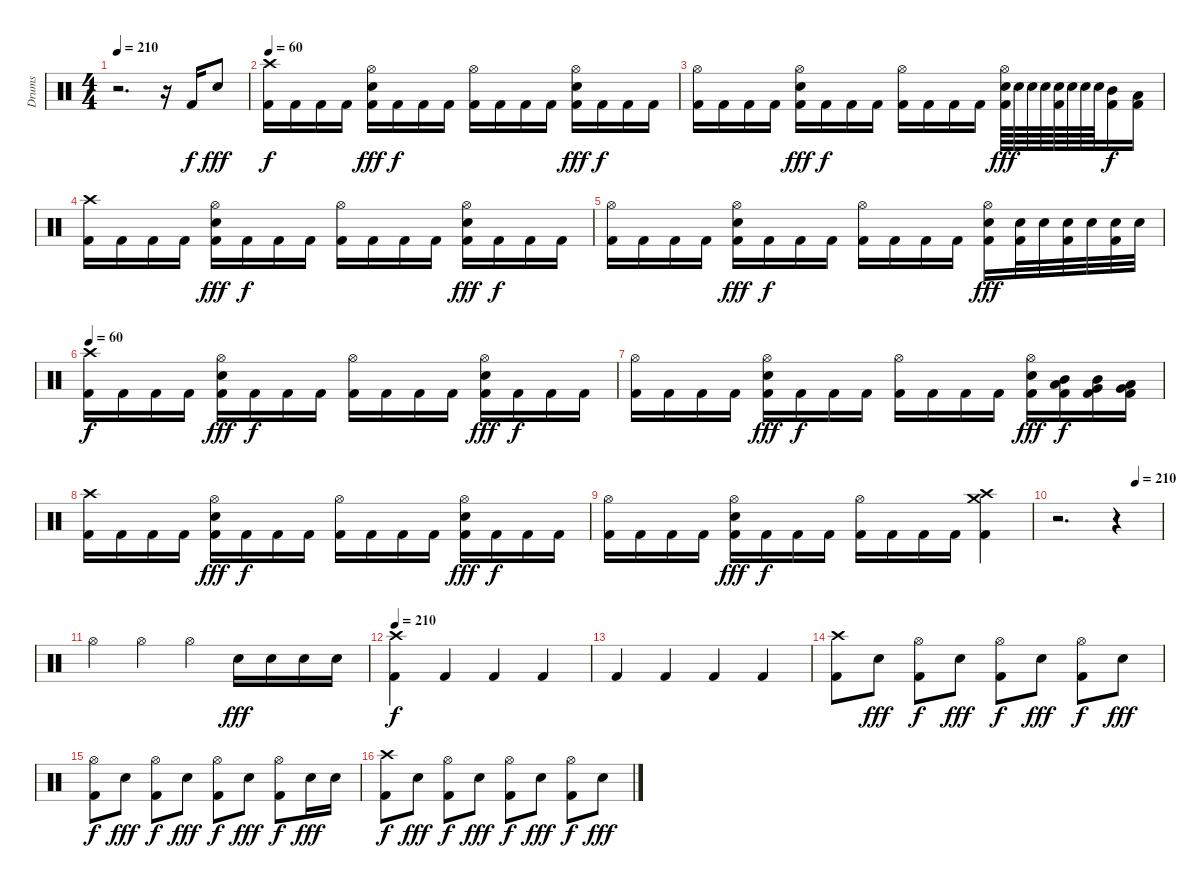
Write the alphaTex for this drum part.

\track ("Drums" "Drums") {instrument percussion}
\staff {score}
\articulation defaults
\ts (4 4)
\tempo 210
\tempo 60
\tempo 210
\clef neutral
\ks c
r.2{d dy f} r.16 "Kick (hit) 2".16 "Snare (hit) 2".8{dy fff} |
\tempo 60
("Crash high (hit)" "Kick (hit) 2").16{dy f} "Kick (hit) 2".16 "Kick (hit) 2".16 "Kick (hit) 2".16 ("Hi-Hat (open)" "Snare (hit) 2" "Kick (hit) 2").16{dy fff} "Kick (hit) 2".16{dy f} "Kick (hit) 2".16 "Kick (hit) 2".16 ("Hi-Hat (open)" "Kick (hit) 2").16 "Kick (hit) 2".16 "Kick (hit) 2".16 "Kick (hit) 2".16 ("Hi-Hat (open)" "Snare (hit) 2" "Kick (hit) 2").16{dy fff} "Kick (hit) 2".16{dy f} "Kick (hit) 2".16 "Kick (hit) 2".16 |
("Hi-Hat (open)" "Kick (hit) 2").16 "Kick (hit) 2".16 "Kick (hit) 2".16 "Kick (hit) 2".16 ("Hi-Hat (open)" "Snare (hit) 2" "Kick (hit) 2").16{dy fff} "Kick (hit) 2".16{dy f} "Kick (hit) 2".16 "Kick (hit) 2".16 ("Hi-Hat (open)" "Kick (hit) 2").16 "Kick (hit) 2".16 "Kick (hit) 2".16 "Kick (hit) 2".16 ("Hi-Hat (open)" "Snare (hit) 2" "Kick (hit) 2").64{dy fff} "Snare (hit) 2".64 "Snare (hit) 2".64 "Snare (hit) 2".64 ("Snare (hit) 2" "Kick (hit) 2").64 "Snare (hit) 2".64 "Snare (hit) 2".64 "Snare (hit) 2".64 ("Mid Tom (hit)" "Kick (hit) 2").16{dy f} ("Low Tom (hit)" "Kick (hit) 2").16 |
("Crash high (hit)" "Kick (hit) 2").16 "Kick (hit) 2".16 "Kick (hit) 2".16 "Kick (hit) 2".16 ("Hi-Hat (open)" "Snare (hit) 2" "Kick (hit) 2").16{dy fff} "Kick (hit) 2".16{dy f} "Kick (hit) 2".16 "Kick (hit) 2".16 ("Hi-Hat (open)" "Kick (hit) 2").16 "Kick (hit) 2".16 "Kick (hit) 2".16 "Kick (hit) 2".16 ("Hi-Hat (open)" "Snare (hit) 2" "Kick (hit) 2").16{dy fff} "Kick (hit) 2".16{dy f} "Kick (hit) 2".16 "Kick (hit) 2".16 |
("Hi-Hat (open)" "Kick (hit) 2").16 "Kick (hit) 2".16 "Kick (hit) 2".16 "Kick (hit) 2".16 ("Hi-Hat (open)" "Snare (hit) 2" "Kick (hit) 2").16{dy fff} "Kick (hit) 2".16{dy f} "Kick (hit) 2".16 "Kick (hit) 2".16 ("Hi-Hat (open)" "Kick (hit) 2").16 "Kick (hit) 2".16 "Kick (hit) 2".16 "Kick (hit) 2".16 ("Hi-Hat (open)" "Snare (hit) 2" "Kick (hit) 2").16{dy fff} ("Snare (hit) 2" "Kick (hit) 2").32 "Snare (hit) 2".32 ("Snare (hit) 2" "Kick (hit) 2").32 "Snare (hit) 2".32 ("Snare (hit) 2" "Kick (hit) 2").32 "Snare (hit) 2".32 |
\tempo 60
("Crash high (hit)" "Kick (hit) 2").16{dy f} "Kick (hit) 2".16 "Kick (hit) 2".16 "Kick (hit) 2".16 ("Hi-Hat (open)" "Snare (hit) 2" "Kick (hit) 2").16{dy fff} "Kick (hit) 2".16{dy f} "Kick (hit) 2".16 "Kick (hit) 2".16 ("Hi-Hat (open)" "Kick (hit) 2").16 "Kick (hit) 2".16 "Kick (hit) 2".16 "Kick (hit) 2".16 ("Hi-Hat (open)" "Snare (hit) 2" "Kick (hit) 2").16{dy fff} "Kick (hit) 2".16{dy f} "Kick (hit) 2".16 "Kick (hit) 2".16 |
("Hi-Hat (open)" "Kick (hit) 2").16 "Kick (hit) 2".16 "Kick (hit) 2".16 "Kick (hit) 2".16 ("Hi-Hat (open)" "Snare (hit) 2" "Kick (hit) 2").16{dy fff} "Kick (hit) 2".16{dy f} "Kick (hit) 2".16 "Kick (hit) 2".16 ("Hi-Hat (open)" "Kick (hit) 2").16 "Kick (hit) 2".16 "Kick (hit) 2".16 "Kick (hit) 2".16 ("Hi-Hat (open)" "Snare (hit) 2" "Kick (hit) 2").16{dy fff} ("Mid Tom (hit)" "Low Tom (hit)" "Kick (hit) 2").16{dy f} ("Mid Tom (hit)" "Very Low Tom (hit)" "Kick (hit) 2").16 ("Low Tom (hit)" "Very Low Tom (hit)" "Kick (hit) 2").16 |
("Crash high (hit)" "Kick (hit) 2").16 "Kick (hit) 2".16 "Kick (hit) 2".16 "Kick (hit) 2".16 ("Hi-Hat (open)" "Snare (hit) 2" "Kick (hit) 2").16{dy fff} "Kick (hit) 2".16{dy f} "Kick (hit) 2".16 "Kick (hit) 2".16 ("Hi-Hat (open)" "Kick (hit) 2").16 "Kick (hit) 2".16 "Kick (hit) 2".16 "Kick (hit) 2".16 ("Hi-Hat (open)" "Snare (hit) 2" "Kick (hit) 2").16{dy fff} "Kick (hit) 2".16{dy f} "Kick (hit) 2".16 "Kick (hit) 2".16 |
("Hi-Hat (open)" "Kick (hit) 2").16 "Kick (hit) 2".16 "Kick (hit) 2".16 "Kick (hit) 2".16 ("Hi-Hat (open)" "Snare (hit) 2" "Kick (hit) 2").16{dy fff} "Kick (hit) 2".16{dy f} "Kick (hit) 2".16 "Kick (hit) 2".16 ("Hi-Hat (open)" "Kick (hit) 2").16 "Kick (hit) 2".16 "Kick (hit) 2".16 "Kick (hit) 2".16 ("Crash high (hit)" "Crash medium (hit)" "Kick (hit) 2").4 |
\tempo (210 0.75)
r.2{d} r.4 |
"Hi-Hat (open)".4 "Hi-Hat (open)".4 "Hi-Hat (open)".4 "Snare (hit) 2".16{dy fff} "Snare (hit) 2".16 "Snare (hit) 2".16 "Snare (hit) 2".16 |
\tempo 210
("Crash high (hit)" "Kick (hit) 2").4{dy f} "Kick (hit) 2".4 "Kick (hit) 2".4 "Kick (hit) 2".4 |
"Kick (hit) 2".4 "Kick (hit) 2".4 "Kick (hit) 2".4 "Kick (hit) 2".4 |
("Crash high (hit)" "Kick (hit) 2").8 "Snare (hit) 2".8{dy fff} ("Hi-Hat (open)" "Kick (hit) 2").8{dy f} "Snare (hit) 2".8{dy fff} ("Hi-Hat (open)" "Kick (hit) 2").8{dy f} "Snare (hit) 2".8{dy fff} ("Hi-Hat (open)" "Kick (hit) 2").8{dy f} "Snare (hit) 2".8{dy fff} |
("Hi-Hat (open)" "Kick (hit) 2").8{dy f} "Snare (hit) 2".8{dy fff} ("Hi-Hat (open)" "Kick (hit) 2").8{dy f} "Snare (hit) 2".8{dy fff} ("Hi-Hat (open)" "Kick (hit) 2").8{dy f} "Snare (hit) 2".8{dy fff} ("Hi-Hat (open)" "Kick (hit) 2").8{dy f} "Snare (hit) 2".16{dy fff} "Snare (hit) 2".16 |
("Crash high (hit)" "Kick (hit) 2").8{dy f} "Snare (hit) 2".8{dy fff} ("Hi-Hat (open)" "Kick (hit) 2").8{dy f} "Snare (hit) 2".8{dy fff} ("Hi-Hat (open)" "Kick (hit) 2").8{dy f} "Snare (hit) 2".8{dy fff} ("Hi-Hat (open)" "Kick (hit) 2").8{dy f} "Snare (hit) 2".8{dy fff}
